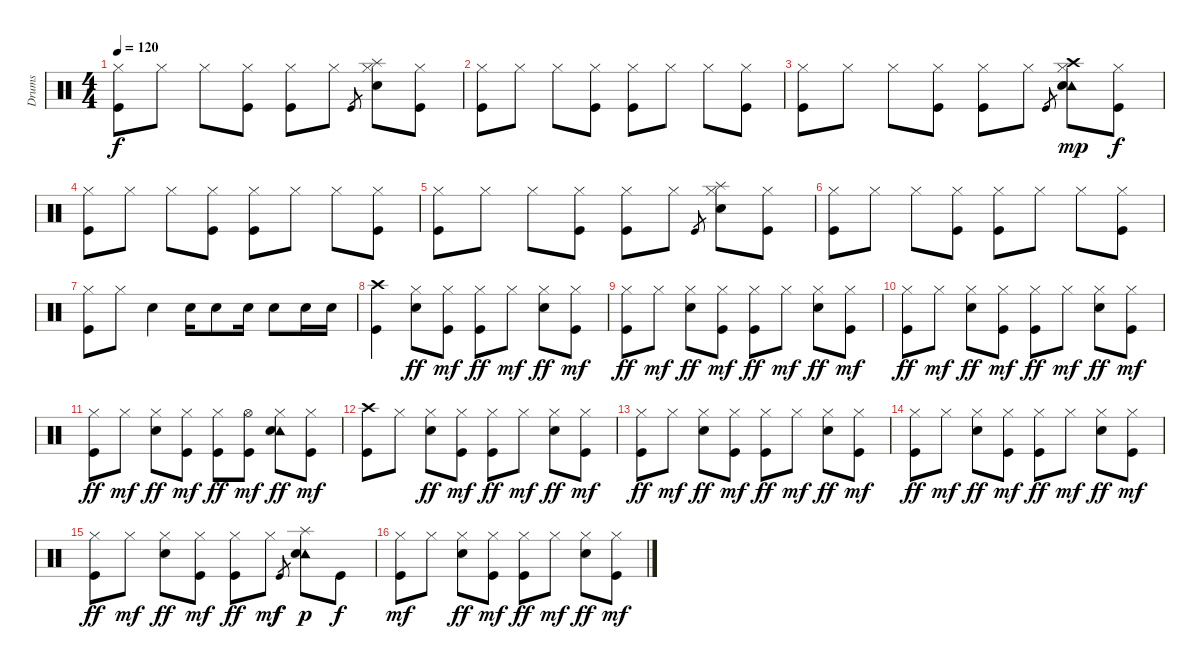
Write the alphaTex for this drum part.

\track ("Drums" "Drums") {instrument percussion}
\staff {score}
\articulation defaults
\ts (4 4)
\tempo 120
\clef neutral
\ks c
("Hi-Hat (closed)" "Kick (hit)").8{dy f} "Hi-Hat (closed)".8 "Hi-Hat (closed)".8 ("Hi-Hat (closed)" "Kick (hit)").8 ("Hi-Hat (closed)" "Kick (hit)").8 "Hi-Hat (closed)".8 "Kick (hit)".8{gr} ("Splash (hit)" "Snare (hit) 2" "Hi-Hat (closed)").8 ("Hi-Hat (closed)" "Kick (hit)").8 |
("Hi-Hat (closed)" "Kick (hit)").8 "Hi-Hat (closed)".8 "Hi-Hat (closed)".8 ("Hi-Hat (closed)" "Kick (hit)").8 ("Hi-Hat (closed)" "Kick (hit)").8 "Hi-Hat (closed)".8 "Hi-Hat (closed)".8 ("Hi-Hat (closed)" "Kick (hit)").8 |
("Hi-Hat (closed)" "Kick (hit)").8 "Hi-Hat (closed)".8 "Hi-Hat (closed)".8 ("Hi-Hat (closed)" "Kick (hit)").8 ("Hi-Hat (closed)" "Kick (hit)").8 "Hi-Hat (closed)".8 "Kick (hit)".8{gr} ("Tambourine (hit)" "Crash high (hit)" "Snare (hit) 2" "Hi-Hat (closed)").8{dy mp} ("Hi-Hat (closed)" "Kick (hit)").8{dy f} |
("Hi-Hat (closed)" "Kick (hit)").8 "Hi-Hat (closed)".8 "Hi-Hat (closed)".8 ("Hi-Hat (closed)" "Kick (hit)").8 ("Hi-Hat (closed)" "Kick (hit)").8 "Hi-Hat (closed)".8 "Hi-Hat (closed)".8 ("Hi-Hat (closed)" "Kick (hit)").8 |
("Hi-Hat (closed)" "Kick (hit)").8 "Hi-Hat (closed)".8 "Hi-Hat (closed)".8 ("Hi-Hat (closed)" "Kick (hit)").8 ("Hi-Hat (closed)" "Kick (hit)").8 "Hi-Hat (closed)".8 "Kick (hit)".8{gr} ("Splash (hit)" "Snare (hit) 2" "Hi-Hat (closed)").8 ("Hi-Hat (closed)" "Kick (hit)").8 |
("Hi-Hat (closed)" "Kick (hit)").8 "Hi-Hat (closed)".8 "Hi-Hat (closed)".8 ("Hi-Hat (closed)" "Kick (hit)").8 ("Hi-Hat (closed)" "Kick (hit)").8 "Hi-Hat (closed)".8 "Hi-Hat (closed)".8 ("Hi-Hat (closed)" "Kick (hit)").8 |
("Hi-Hat (closed)" "Kick (hit)").8 "Hi-Hat (closed)".8 "Snare (hit) 2".4 "Snare (hit) 2".16 "Snare (hit) 2".8 "Snare (hit) 2".16 "Snare (hit) 2".8 "Snare (hit) 2".16 "Snare (hit) 2".16 |
("Crash high (hit)" "Kick (hit)").4 ("Hi-Hat (closed)" "Snare (hit) 2").8{dy ff} ("Hi-Hat (closed)" "Kick (hit)").8{dy mf} ("Hi-Hat (closed)" "Kick (hit)").8{dy ff} "Hi-Hat (closed)".8{dy mf} ("Hi-Hat (closed)" "Snare (hit) 2").8{dy ff} ("Hi-Hat (closed)" "Kick (hit)").8{dy mf} |
("Hi-Hat (closed)" "Kick (hit)").8{dy ff} "Hi-Hat (closed)".8{dy mf} ("Hi-Hat (closed)" "Snare (hit) 2").8{dy ff} ("Hi-Hat (closed)" "Kick (hit)").8{dy mf} ("Hi-Hat (closed)" "Kick (hit)").8{dy ff} "Hi-Hat (closed)".8{dy mf} ("Hi-Hat (closed)" "Snare (hit) 2").8{dy ff} ("Hi-Hat (closed)" "Kick (hit)").8{dy mf} |
("Hi-Hat (closed)" "Kick (hit)").8{dy ff} "Hi-Hat (closed)".8{dy mf} ("Hi-Hat (closed)" "Snare (hit) 2").8{dy ff} ("Hi-Hat (closed)" "Kick (hit)").8{dy mf} ("Hi-Hat (closed)" "Kick (hit)").8{dy ff} "Hi-Hat (closed)".8{dy mf} ("Hi-Hat (closed)" "Snare (hit) 2").8{dy ff} ("Hi-Hat (closed)" "Kick (hit)").8{dy mf} |
("Hi-Hat (closed)" "Kick (hit)").8{dy ff} "Hi-Hat (closed)".8{dy mf} ("Hi-Hat (closed)" "Snare (hit) 2").8{dy ff} ("Hi-Hat (closed)" "Kick (hit)").8{dy mf} ("Hi-Hat (closed)" "Kick (hit)").8{dy ff} ("Hi-Hat (open)" "Kick (hit)").8{dy mf} ("Hi-Hat (closed)" "Tambourine (hit)" "Snare (hit) 2").8{dy ff} ("Hi-Hat (closed)" "Kick (hit)").8{dy mf} |
("Crash high (hit)" "Kick (hit)").8 "Hi-Hat (closed)".8 ("Hi-Hat (closed)" "Snare (hit) 2").8{dy ff} ("Hi-Hat (closed)" "Kick (hit)").8{dy mf} ("Hi-Hat (closed)" "Kick (hit)").8{dy ff} "Hi-Hat (closed)".8{dy mf} ("Hi-Hat (closed)" "Snare (hit) 2").8{dy ff} ("Hi-Hat (closed)" "Kick (hit)").8{dy mf} |
("Hi-Hat (closed)" "Kick (hit)").8{dy ff} "Hi-Hat (closed)".8{dy mf} ("Hi-Hat (closed)" "Snare (hit) 2").8{dy ff} ("Hi-Hat (closed)" "Kick (hit)").8{dy mf} ("Hi-Hat (closed)" "Kick (hit)").8{dy ff} "Hi-Hat (closed)".8{dy mf} ("Hi-Hat (closed)" "Snare (hit) 2").8{dy ff} ("Hi-Hat (closed)" "Kick (hit)").8{dy mf} |
("Hi-Hat (closed)" "Kick (hit)").8{dy ff} "Hi-Hat (closed)".8{dy mf} ("Hi-Hat (closed)" "Snare (hit) 2").8{dy ff} ("Hi-Hat (closed)" "Kick (hit)").8{dy mf} ("Hi-Hat (closed)" "Kick (hit)").8{dy ff} "Hi-Hat (closed)".8{dy mf} ("Hi-Hat (closed)" "Snare (hit) 2").8{dy ff} ("Hi-Hat (closed)" "Kick (hit)").8{dy mf} |
("Hi-Hat (closed)" "Kick (hit)").8{dy ff} "Hi-Hat (closed)".8{dy mf} ("Hi-Hat (closed)" "Snare (hit) 2").8{dy ff} ("Hi-Hat (closed)" "Kick (hit)").8{dy mf} ("Hi-Hat (closed)" "Kick (hit)").8{dy ff} "Hi-Hat (closed)".8{dy mf} "Kick (hit)".8{gr dy f} ("Splash (hit)" "Tambourine (hit)" "Snare (hit) 2").8{dy p} "Kick (hit)".8{dy f} |
("Hi-Hat (closed)" "Kick (hit)").8{dy mf} "Hi-Hat (closed)".8 ("Hi-Hat (closed)" "Snare (hit) 2").8{dy ff} ("Hi-Hat (closed)" "Kick (hit)").8{dy mf} ("Hi-Hat (closed)" "Kick (hit)").8{dy ff} "Hi-Hat (closed)".8{dy mf} ("Hi-Hat (closed)" "Snare (hit) 2").8{dy ff} ("Hi-Hat (closed)" "Kick (hit)").8{dy mf}
